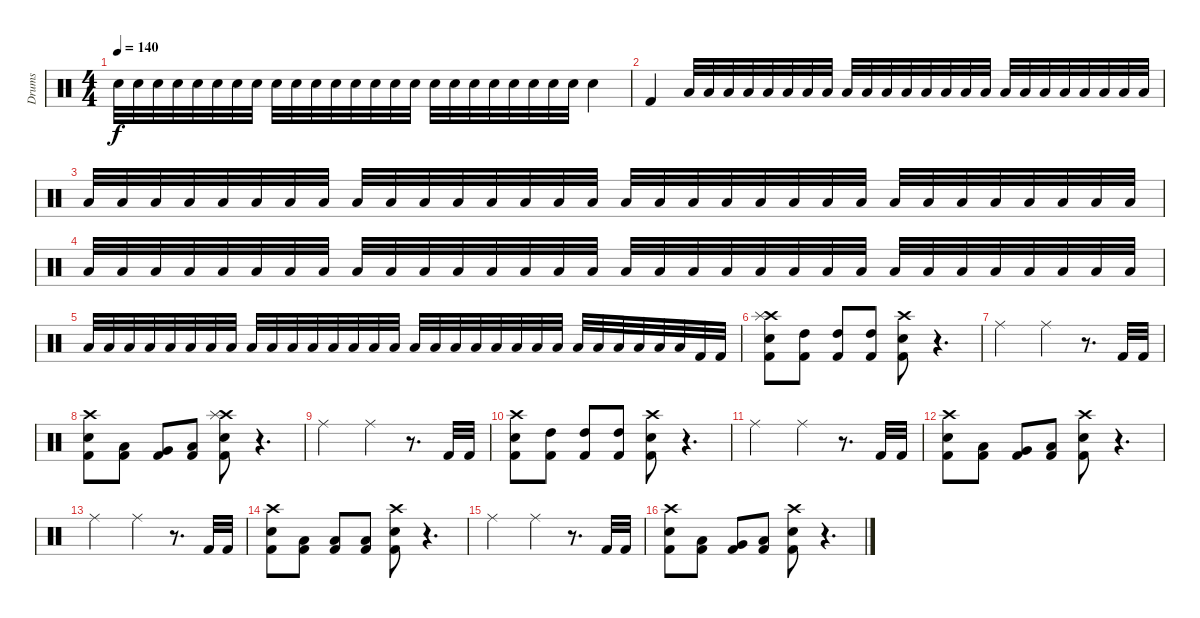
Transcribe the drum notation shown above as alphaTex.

\track ("Drums" "Drums") {instrument percussion}
\staff {score}
\articulation defaults
\ts (4 4)
\tempo 140
\clef neutral
\ks c "Electric Snare (hit)".32{dy f} "Electric Snare (hit)".32 "Electric Snare (hit)".32 "Electric Snare (hit)".32 "Electric Snare (hit)".32 "Electric Snare (hit)".32 "Electric Snare (hit)".32 "Electric Snare (hit)".32 "Electric Snare (hit)".32 "Electric Snare (hit)".32 "Electric Snare (hit)".32 "Electric Snare (hit)".32 "Electric Snare (hit)".32 "Electric Snare (hit)".32 "Electric Snare (hit)".32 "Electric Snare (hit)".32 "Electric Snare (hit)".32 "Electric Snare (hit)".32 "Electric Snare (hit)".32 "Electric Snare (hit)".32 "Electric Snare (hit)".32 "Electric Snare (hit)".32 "Electric Snare (hit)".32 "Electric Snare (hit)".32 "Electric Snare (hit)".4
|
"Kick (hit) 2".4{volume 0} "Low Floor Tom (hit)".32{volume 16} "Low Floor Tom (hit)".32 "Low Floor Tom (hit)".32 "Low Floor Tom (hit)".32 "Low Floor Tom (hit)".32 "Low Floor Tom (hit)".32 "Low Floor Tom (hit)".32 "Low Floor Tom (hit)".32 "Low Floor Tom (hit)".32 "Low Floor Tom (hit)".32 "Low Floor Tom (hit)".32 "Low Floor Tom (hit)".32 "Low Floor Tom (hit)".32 "Low Floor Tom (hit)".32 "Low Floor Tom (hit)".32 "Low Floor Tom (hit)".32 "Low Floor Tom (hit)".32 "Low Floor Tom (hit)".32 "Low Floor Tom (hit)".32 "Low Floor Tom (hit)".32 "Low Floor Tom (hit)".32 "Low Floor Tom (hit)".32 "Low Floor Tom (hit)".32 "Low Floor Tom (hit)".32 |
"Low Floor Tom (hit)".32 "Low Floor Tom (hit)".32 "Low Floor Tom (hit)".32 "Low Floor Tom (hit)".32 "Low Floor Tom (hit)".32 "Low Floor Tom (hit)".32 "Low Floor Tom (hit)".32 "Low Floor Tom (hit)".32 "Low Floor Tom (hit)".32 "Low Floor Tom (hit)".32 "Low Floor Tom (hit)".32 "Low Floor Tom (hit)".32 "Low Floor Tom (hit)".32 "Low Floor Tom (hit)".32 "Low Floor Tom (hit)".32 "Low Floor Tom (hit)".32 "Low Floor Tom (hit)".32 "Low Floor Tom (hit)".32 "Low Floor Tom (hit)".32 "Low Floor Tom (hit)".32 "Low Floor Tom (hit)".32 "Low Floor Tom (hit)".32 "Low Floor Tom (hit)".32 "Low Floor Tom (hit)".32 "Low Floor Tom (hit)".32 "Low Floor Tom (hit)".32 "Low Floor Tom (hit)".32 "Low Floor Tom (hit)".32 "Low Floor Tom (hit)".32 "Low Floor Tom (hit)".32 "Low Floor Tom (hit)".32 "Low Floor Tom (hit)".32 |
"Low Floor Tom (hit)".32 "Low Floor Tom (hit)".32 "Low Floor Tom (hit)".32 "Low Floor Tom (hit)".32 "Low Floor Tom (hit)".32 "Low Floor Tom (hit)".32 "Low Floor Tom (hit)".32 "Low Floor Tom (hit)".32 "Low Floor Tom (hit)".32 "Low Floor Tom (hit)".32 "Low Floor Tom (hit)".32 "Low Floor Tom (hit)".32 "Low Floor Tom (hit)".32 "Low Floor Tom (hit)".32 "Low Floor Tom (hit)".32 "Low Floor Tom (hit)".32 "Low Floor Tom (hit)".32 "Low Floor Tom (hit)".32 "Low Floor Tom (hit)".32 "Low Floor Tom (hit)".32 "Low Floor Tom (hit)".32 "Low Floor Tom (hit)".32 "Low Floor Tom (hit)".32 "Low Floor Tom (hit)".32 "Low Floor Tom (hit)".32 "Low Floor Tom (hit)".32 "Low Floor Tom (hit)".32 "Low Floor Tom (hit)".32 "Low Floor Tom (hit)".32 "Low Floor Tom (hit)".32 "Low Floor Tom (hit)".32 "Low Floor Tom (hit)".32 |
"Low Floor Tom (hit)".32 "Low Floor Tom (hit)".32 "Low Floor Tom (hit)".32 "Low Floor Tom (hit)".32 "Low Floor Tom (hit)".32 "Low Floor Tom (hit)".32 "Low Floor Tom (hit)".32 "Low Floor Tom (hit)".32 "Low Floor Tom (hit)".32 "Low Floor Tom (hit)".32 "Low Floor Tom (hit)".32 "Low Floor Tom (hit)".32 "Low Floor Tom (hit)".32 "Low Floor Tom (hit)".32 "Low Floor Tom (hit)".32 "Low Floor Tom (hit)".32 "Low Floor Tom (hit)".32 "Low Floor Tom (hit)".32 "Low Floor Tom (hit)".32 "Low Floor Tom (hit)".32 "Low Floor Tom (hit)".32 "Low Floor Tom (hit)".32 "Low Floor Tom (hit)".32 "Low Floor Tom (hit)".32 "Low Floor Tom (hit)".32 "Low Floor Tom (hit)".32 "Low Floor Tom (hit)".32 "Low Floor Tom (hit)".32 "Low Floor Tom (hit)".32 "Low Floor Tom (hit)".32 "Kick (hit) 2".32 "Kick (hit) 2".32 |
("Crash high (hit)" "Splash (hit)" "Electric Snare (hit)" "Kick (hit) 2").8 ("High Tom (hit)" "Kick (hit) 2").8 ("High Tom (hit)" "Kick (hit) 2").8 ("High Tom (hit)" "Kick (hit) 2").8 ("Crash high (hit)" "Electric Snare (hit)" "Kick (hit) 2").8 r.4{d} |
"Ride (middle)".2 "Ride (middle)".4 r.8{d} "Kick (hit) 2".32 "Kick (hit) 2".32 |
("Crash high (hit)" "Electric Snare (hit)" "Kick (hit) 2").8 ("Low Tom (hit)" "Kick (hit) 2").8 ("Very Low Tom (hit)" "Kick (hit) 2").8 ("Low Floor Tom (hit)" "Kick (hit) 2").8 ("Crash high (hit)" "Splash (hit)" "Electric Snare (hit)" "Kick (hit) 2").8 r.4{d} |
"Ride (middle)".2 "Ride (middle)".4 r.8{d} "Kick (hit) 2".32 "Kick (hit) 2".32 |
("Crash high (hit)" "Electric Snare (hit)" "Kick (hit) 2").8 ("High Tom (hit)" "Kick (hit) 2").8 ("High Tom (hit)" "Kick (hit) 2").8 ("High Tom (hit)" "Kick (hit) 2").8 ("Crash high (hit)" "Electric Snare (hit)" "Kick (hit) 2").8 r.4{d} |
"Ride (middle)".2 "Ride (middle)".4 r.8{d} "Kick (hit) 2".32 "Kick (hit) 2".32 |
("Crash high (hit)" "Electric Snare (hit)" "Kick (hit) 2").8 ("Low Tom (hit)" "Kick (hit) 2").8 ("Very Low Tom (hit)" "Kick (hit) 2").8 ("Low Floor Tom (hit)" "Kick (hit) 2").8 ("Crash high (hit)" "Electric Snare (hit)" "Kick (hit) 2").8 r.4{d} |
"Ride (middle)".2 "Ride (middle)".4 r.8{d} "Kick (hit) 2".32 "Kick (hit) 2".32 |
("Crash high (hit)" "Electric Snare (hit)" "Kick (hit) 2").8 ("Low Tom (hit)" "Kick (hit) 2").8 ("Low Tom (hit)" "Kick (hit) 2").8 ("Low Tom (hit)" "Kick (hit) 2").8 ("Crash high (hit)" "Electric Snare (hit)" "Kick (hit) 2").8 r.4{d} |
"Ride (middle)".2 "Ride (middle)".4 r.8{d} "Kick (hit) 2".32 "Kick (hit) 2".32 |
("Crash high (hit)" "Electric Snare (hit)" "Kick (hit) 2").8 ("Low Tom (hit)" "Kick (hit) 2").8 ("Very Low Tom (hit)" "Kick (hit) 2").8 ("Low Floor Tom (hit)" "Kick (hit) 2").8 ("Crash high (hit)" "Electric Snare (hit)" "Kick (hit) 2").8 r.4{d}
